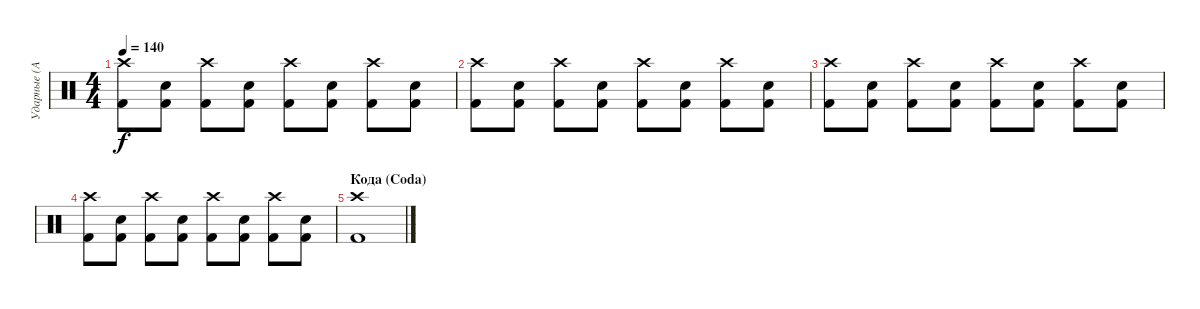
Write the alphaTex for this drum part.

\track ("Ударные (Алексей Барзилович)" "Ударные (А") {instrument percussion}
\staff {score}
\articulation defaults
\ts (4 4)
\tempo 140
\clef neutral
\ks c
("Crash high (hit)" "Kick (hit) 2").8{dy f} ("Electric Snare (hit)" "Kick (hit) 2").8 ("Crash high (hit)" "Kick (hit) 2").8 ("Electric Snare (hit)" "Kick (hit) 2").8 ("Crash high (hit)" "Kick (hit) 2").8 ("Electric Snare (hit)" "Kick (hit) 2").8 ("Crash high (hit)" "Kick (hit) 2").8 ("Electric Snare (hit)" "Kick (hit) 2").8 |
("Crash high (hit)" "Kick (hit) 2").8 ("Electric Snare (hit)" "Kick (hit) 2").8 ("Crash high (hit)" "Kick (hit) 2").8 ("Electric Snare (hit)" "Kick (hit) 2").8 ("Crash high (hit)" "Kick (hit) 2").8 ("Electric Snare (hit)" "Kick (hit) 2").8 ("Crash high (hit)" "Kick (hit) 2").8 ("Electric Snare (hit)" "Kick (hit) 2").8 |
("Crash high (hit)" "Kick (hit) 2").8 ("Electric Snare (hit)" "Kick (hit) 2").8 ("Crash high (hit)" "Kick (hit) 2").8 ("Electric Snare (hit)" "Kick (hit) 2").8 ("Crash high (hit)" "Kick (hit) 2").8 ("Electric Snare (hit)" "Kick (hit) 2").8 ("Crash high (hit)" "Kick (hit) 2").8 ("Electric Snare (hit)" "Kick (hit) 2").8 |
("Crash high (hit)" "Kick (hit) 2").8 ("Electric Snare (hit)" "Kick (hit) 2").8 ("Crash high (hit)" "Kick (hit) 2").8 ("Electric Snare (hit)" "Kick (hit) 2").8 ("Crash high (hit)" "Kick (hit) 2").8 ("Electric Snare (hit)" "Kick (hit) 2").8 ("Crash high (hit)" "Kick (hit) 2").8 ("Electric Snare (hit)" "Kick (hit) 2").8 |
\section ("" "Кода (Coda)")
("Crash high (hit)" "Kick (hit) 2").1
